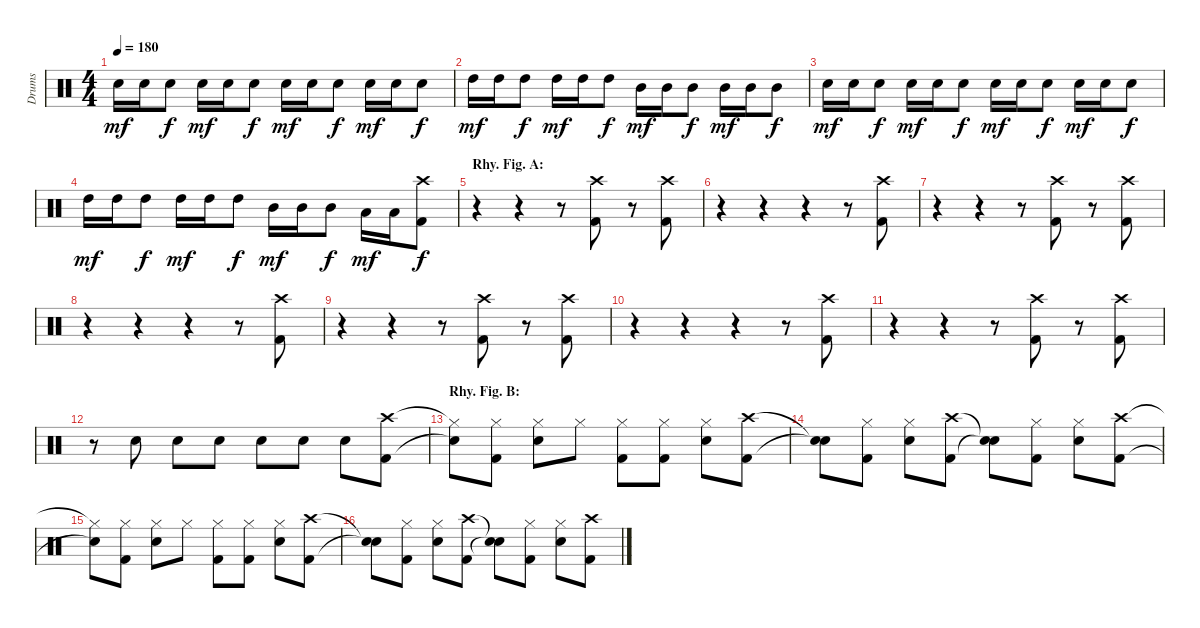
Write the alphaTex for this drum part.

\track ("Drums" "Drums") {instrument percussion}
\staff {score}
\articulation defaults
\ts (4 4)
\tempo 180
\clef neutral
\ks c "Snare (hit) 2".16{dy mf} "Snare (hit) 2".16 "Snare (hit) 2".8{dy f} "Snare (hit) 2".16{dy mf} "Snare (hit) 2".16 "Snare (hit) 2".8{dy f} "Snare (hit) 2".16{dy mf} "Snare (hit) 2".16 "Snare (hit) 2".8{dy f} "Snare (hit) 2".16{dy mf} "Snare (hit) 2".16 "Snare (hit) 2".8{dy f}
|
"High Tom (hit)".16{dy mf} "High Tom (hit)".16 "High Tom (hit)".8{dy f} "High Tom (hit)".16{dy mf} "High Tom (hit)".16 "High Tom (hit)".8{dy f} "Mid Tom (hit)".16{dy mf} "Mid Tom (hit)".16 "Mid Tom (hit)".8{dy f} "Mid Tom (hit)".16{dy mf} "Mid Tom (hit)".16 "Mid Tom (hit)".8{dy f} |
"Snare (hit) 2".16{dy mf} "Snare (hit) 2".16 "Snare (hit) 2".8{dy f} "Snare (hit) 2".16{dy mf} "Snare (hit) 2".16 "Snare (hit) 2".8{dy f} "Snare (hit) 2".16{dy mf} "Snare (hit) 2".16 "Snare (hit) 2".8{dy f} "Snare (hit) 2".16{dy mf} "Snare (hit) 2".16 "Snare (hit) 2".8{dy f} |
"High Tom (hit)".16{dy mf} "High Tom (hit)".16 "High Tom (hit)".8{dy f} "High Tom (hit)".16{dy mf} "High Tom (hit)".16 "High Tom (hit)".8{dy f} "Mid Tom (hit)".16{dy mf} "Mid Tom (hit)".16 "Mid Tom (hit)".8{dy f} "Low Tom (hit)".16{dy mf} "Low Tom (hit)".16 ("Crash high (hit)" "Kick (hit) 2").8{dy f} |
\section ("" "Rhy. Fig. A:")
r.4 r.4 r.8 ("Crash high (hit)" "Kick (hit) 2").8 r.8 ("Crash high (hit)" "Kick (hit) 2").8 |
r.4 r.4 r.4 r.8 ("Crash high (hit)" "Kick (hit) 2").8 |
r.4 r.4 r.8 ("Crash high (hit)" "Kick (hit) 2").8 r.8 ("Crash high (hit)" "Kick (hit) 2").8 |
r.4 r.4 r.4 r.8 ("Crash high (hit)" "Kick (hit) 2").8 |
r.4 r.4 r.8 ("Crash high (hit)" "Kick (hit) 2").8 r.8 ("Crash high (hit)" "Kick (hit) 2").8 |
r.4 r.4 r.4 r.8 ("Crash high (hit)" "Kick (hit) 2").8 |
r.4 r.4 r.8 ("Crash high (hit)" "Kick (hit) 2").8 r.8 ("Crash high (hit)" "Kick (hit) 2").8 |
r.8 "Snare (hit) 2".8 "Snare (hit) 2".8 "Snare (hit) 2".8 "Snare (hit) 2".8 "Snare (hit) 2".8 "Snare (hit) 2".8 ("Crash high (hit)" "Kick (hit) 2").8 |
\section ("" "Rhy. Fig. B:")
("Hi-Hat (closed)"{t} "Snare (hit)"{t}).8 ("Hi-Hat (closed)" "Kick (hit) 2").8 ("Hi-Hat (closed)" "Snare (hit) 2").8 "Hi-Hat (closed)".8 ("Hi-Hat (closed)" "Kick (hit) 2").8 ("Hi-Hat (closed)" "Kick (hit) 2").8 ("Hi-Hat (closed)" "Snare (hit) 2").8 ("Crash high (hit)" "Kick (hit) 2").8 |
("Snare (hit)"{t} "Snare (hit)"{t}).8 ("Hi-Hat (closed)" "Kick (hit) 2").8 ("Hi-Hat (closed)" "Snare (hit) 2").8 ("Crash high (hit)" "Kick (hit) 2").8 ("Snare (hit)"{t} "Snare (hit)"{t}).8 ("Hi-Hat (closed)" "Kick (hit) 2").8 ("Hi-Hat (closed)" "Snare (hit) 2").8 ("Crash high (hit)" "Kick (hit) 2").8 |
("Hi-Hat (closed)"{t} "Snare (hit)"{t}).8 ("Hi-Hat (closed)" "Kick (hit) 2").8 ("Hi-Hat (closed)" "Snare (hit) 2").8 "Hi-Hat (closed)".8 ("Hi-Hat (closed)" "Kick (hit) 2").8 ("Hi-Hat (closed)" "Kick (hit) 2").8 ("Hi-Hat (closed)" "Snare (hit) 2").8 ("Crash high (hit)" "Kick (hit) 2").8 |
("Snare (hit)"{t} "Snare (hit)"{t}).8 ("Hi-Hat (closed)" "Kick (hit) 2").8 ("Hi-Hat (closed)" "Snare (hit) 2").8 ("Crash high (hit)" "Kick (hit) 2").8 ("Snare (hit)"{t} "Snare (hit)"{t}).8 ("Hi-Hat (closed)" "Kick (hit) 2").8 ("Hi-Hat (closed)" "Snare (hit) 2").8 ("Crash high (hit)" "Kick (hit) 2").8
